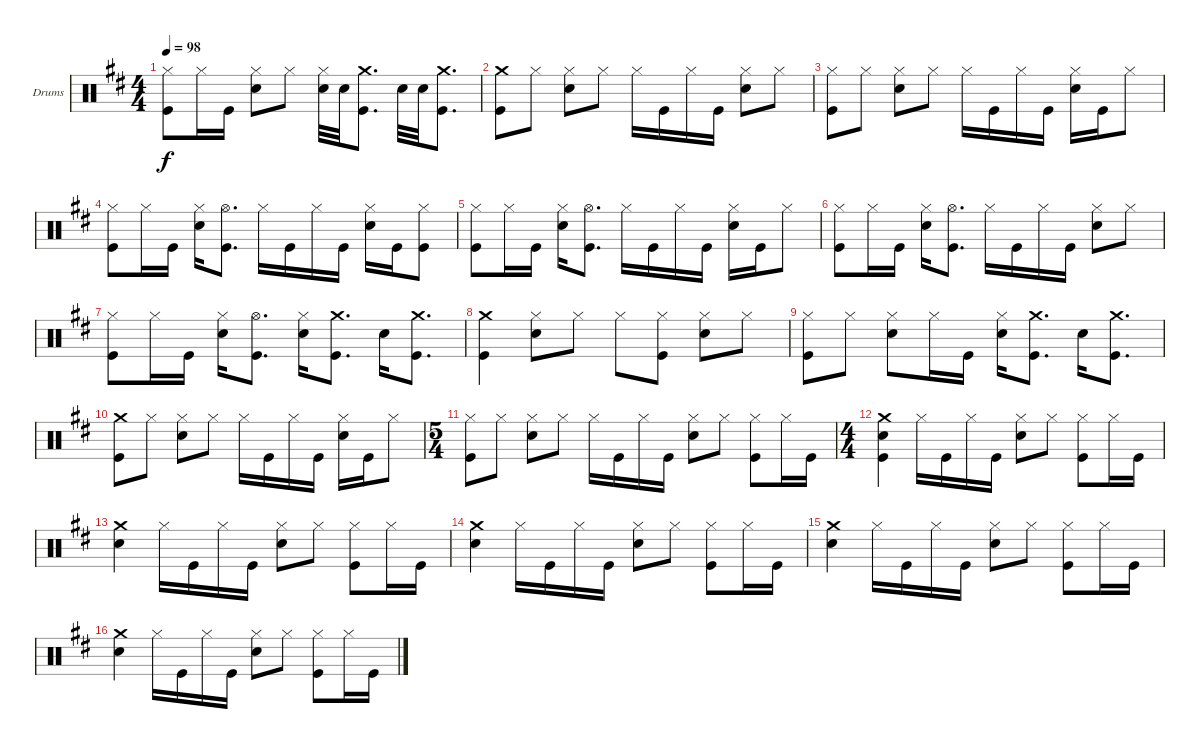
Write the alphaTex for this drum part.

\bracketExtendMode groupsimilarinstruments
\firstSystemTrackNameOrientation horizontal
\otherSystemsTrackNameOrientation horizontal
\track ("Drumkit" "Drums") {instrument percussion}
\staff {score}
\articulation defaults
\ts (4 4)
\tempo 98
\clef neutral
\ks d
("Hi-Hat (closed)" "Kick (hit)").8{dy f} "Hi-Hat (closed)".16 "Kick (hit)".16 ("Hi-Hat (closed)" "Snare (hit) 2").8 "Hi-Hat (closed)".8 ("Hi-Hat (closed)" "Snare (hit) 2").32 "Snare (hit) 2".32 ("Crash medium (hit)" "Kick (hit)").8{d} "Snare (hit) 2".32 "Snare (hit) 2".32 ("Crash medium (hit)" "Kick (hit)").8{d} |
("Crash medium (hit)" "Kick (hit)").8 "Hi-Hat (closed)".8 ("Hi-Hat (closed)" "Snare (hit) 2").8 "Hi-Hat (closed)".8 "Hi-Hat (closed)".16 "Kick (hit)".16 "Hi-Hat (closed)".16 "Kick (hit)".16 ("Hi-Hat (closed)" "Snare (hit) 2").8 "Hi-Hat (closed)".8 |
("Hi-Hat (closed)" "Kick (hit)").8 "Hi-Hat (closed)".8 ("Hi-Hat (closed)" "Snare (hit) 2").8 "Hi-Hat (closed)".8 "Hi-Hat (closed)".16 "Kick (hit)".16 "Hi-Hat (closed)".16 "Kick (hit)".16 ("Hi-Hat (closed)" "Snare (hit) 2").16 "Kick (hit)".16 "Hi-Hat (closed)".8 |
("Hi-Hat (closed)" "Kick (hit)").8 "Hi-Hat (closed)".16 "Kick (hit)".16 ("Hi-Hat (closed)" "Snare (hit) 2").16 ("Hi-Hat (open)" "Kick (hit)").8{d} "Hi-Hat (closed)".16 "Kick (hit)".16 "Hi-Hat (closed)".16 "Kick (hit)".16 ("Hi-Hat (closed)" "Snare (hit) 2").16 "Kick (hit)".16 ("Hi-Hat (closed)" "Kick (hit)").8 |
("Hi-Hat (closed)" "Kick (hit)").8 "Hi-Hat (closed)".16 "Kick (hit)".16 ("Hi-Hat (closed)" "Snare (hit) 2").16 ("Hi-Hat (open)" "Kick (hit)").8{d} "Hi-Hat (closed)".16 "Kick (hit)".16 "Hi-Hat (closed)".16 "Kick (hit)".16 ("Hi-Hat (closed)" "Snare (hit) 2").16 "Kick (hit)".16 "Hi-Hat (closed)".8 |
("Hi-Hat (closed)" "Kick (hit)").8 "Hi-Hat (closed)".16 "Kick (hit)".16 ("Hi-Hat (closed)" "Snare (hit) 2").16 ("Hi-Hat (open)" "Kick (hit)").8{d} "Hi-Hat (closed)".16 "Kick (hit)".16 "Hi-Hat (closed)".16 "Kick (hit)".16 ("Hi-Hat (closed)" "Snare (hit) 2").8 "Hi-Hat (closed)".8 |
("Hi-Hat (closed)" "Kick (hit)").8 "Hi-Hat (closed)".16 "Kick (hit)".16 ("Hi-Hat (closed)" "Snare (hit) 2").16 ("Hi-Hat (open)" "Kick (hit)").8{d} ("Hi-Hat (closed)" "Snare (hit) 2").16 ("Crash medium (hit)" "Kick (hit)").8{d} "Snare (hit) 2".16 ("Crash medium (hit)" "Kick (hit)").8{d} |
("Crash medium (hit)" "Kick (hit)").4 ("Hi-Hat (closed)" "Snare (hit) 2").8 "Hi-Hat (closed)".8 "Hi-Hat (closed)".8 ("Hi-Hat (closed)" "Kick (hit)").8 ("Hi-Hat (closed)" "Snare (hit) 2").8 "Hi-Hat (closed)".8 |
("Hi-Hat (closed)" "Kick (hit)").8 "Hi-Hat (closed)".8 ("Hi-Hat (closed)" "Snare (hit) 2").8 "Hi-Hat (closed)".16 "Kick (hit)".16 ("Hi-Hat (closed)" "Snare (hit) 2").16 ("Crash medium (hit)" "Kick (hit)").8{d} "Snare (hit) 2".16 ("Crash medium (hit)" "Kick (hit)").8{d} |
("Crash medium (hit)" "Kick (hit)").8 "Hi-Hat (closed)".8 ("Hi-Hat (closed)" "Snare (hit) 2").8 "Hi-Hat (closed)".8 "Hi-Hat (closed)".16 "Kick (hit)".16 "Hi-Hat (closed)".16 "Kick (hit)".16 ("Hi-Hat (closed)" "Snare (hit) 2").16 "Kick (hit)".16 "Hi-Hat (closed)".8 |
\ts (5 4)
("Hi-Hat (closed)" "Kick (hit)").8 "Hi-Hat (closed)".8 ("Hi-Hat (closed)" "Snare (hit) 2").8 "Hi-Hat (closed)".8 "Hi-Hat (closed)".16 "Kick (hit)".16 "Hi-Hat (closed)".16 "Kick (hit)".16 ("Hi-Hat (closed)" "Snare (hit) 2").8 "Hi-Hat (closed)".8 ("Hi-Hat (closed)" "Kick (hit)").8 "Hi-Hat (closed)".16 "Kick (hit)".16 |
\ts (4 4)
("Crash medium (hit)" "Snare (hit) 2" "Kick (hit)").4 "Hi-Hat (closed)".16 "Kick (hit)".16 "Hi-Hat (closed)".16 "Kick (hit)".16 ("Hi-Hat (closed)" "Snare (hit) 2").8 "Hi-Hat (closed)".8 ("Hi-Hat (closed)" "Kick (hit)").8 "Hi-Hat (closed)".16 "Kick (hit)".16 |
("Crash medium (hit)" "Snare (hit) 2").4 "Hi-Hat (closed)".16 "Kick (hit)".16 "Hi-Hat (closed)".16 "Kick (hit)".16 ("Hi-Hat (closed)" "Snare (hit) 2").8 "Hi-Hat (closed)".8 ("Hi-Hat (closed)" "Kick (hit)").8 "Hi-Hat (closed)".16 "Kick (hit)".16 |
("Crash medium (hit)" "Snare (hit) 2").4 "Hi-Hat (closed)".16 "Kick (hit)".16 "Hi-Hat (closed)".16 "Kick (hit)".16 ("Hi-Hat (closed)" "Snare (hit) 2").8 "Hi-Hat (closed)".8 ("Hi-Hat (closed)" "Kick (hit)").8 "Hi-Hat (closed)".16 "Kick (hit)".16 |
("Crash medium (hit)" "Snare (hit) 2").4 "Hi-Hat (closed)".16 "Kick (hit)".16 "Hi-Hat (closed)".16 "Kick (hit)".16 ("Hi-Hat (closed)" "Snare (hit) 2").8 "Hi-Hat (closed)".8 ("Hi-Hat (closed)" "Kick (hit)").8 "Hi-Hat (closed)".16 "Kick (hit)".16 |
("Crash medium (hit)" "Snare (hit) 2").4 "Hi-Hat (closed)".16 "Kick (hit)".16 "Hi-Hat (closed)".16 "Kick (hit)".16 ("Hi-Hat (closed)" "Snare (hit) 2").8 "Hi-Hat (closed)".8 ("Hi-Hat (closed)" "Kick (hit)").8 "Hi-Hat (closed)".16 "Kick (hit)".16
